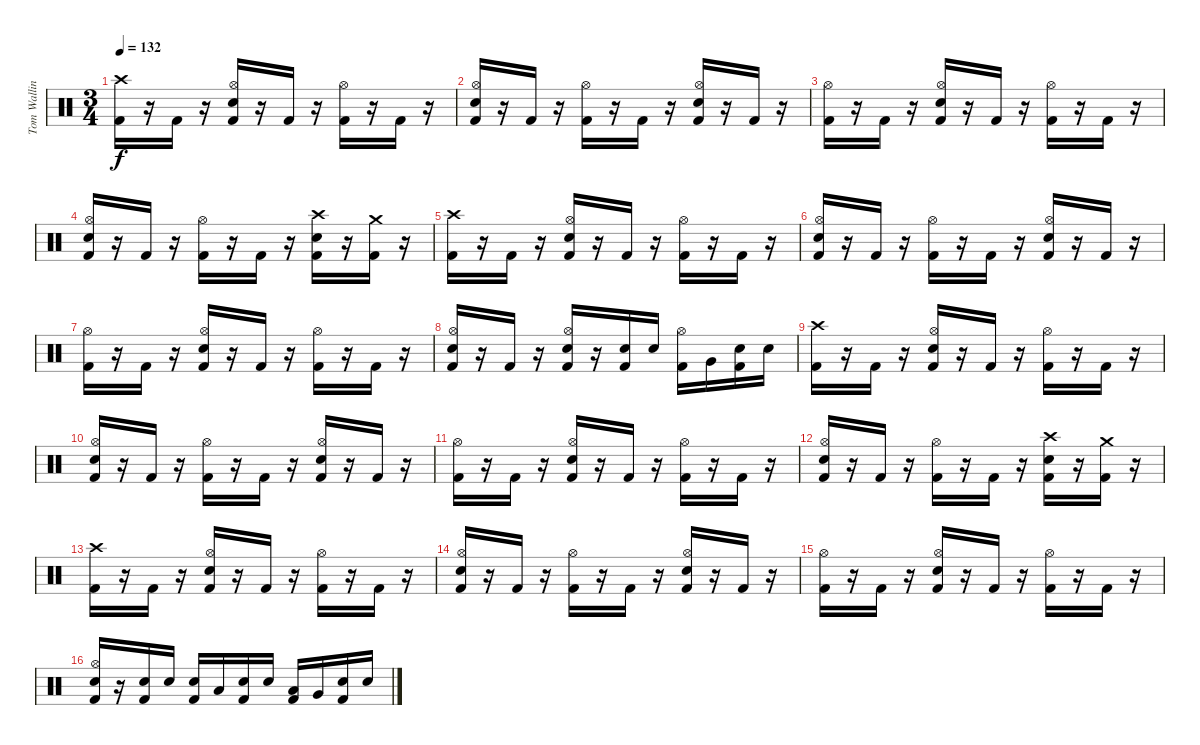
\track ("Tom Walling [Drums]" "Tom Wallin") {instrument percussion}
\staff {score}
\articulation defaults
\ts (3 4)
\tempo 132
\clef neutral
\ks c
("Crash high (hit)" "Kick (hit) 2").16{dy f} r.16 "Kick (hit) 2".16 r.16 ("Hi-Hat (open)" "Electric Snare (hit)" "Kick (hit) 2").16 r.16 "Kick (hit) 2".16 r.16 ("Hi-Hat (open)" "Kick (hit) 2").16 r.16 "Kick (hit) 2".16 r.16 |
("Hi-Hat (open)" "Electric Snare (hit)" "Kick (hit) 2").16 r.16 "Kick (hit) 2".16 r.16 ("Hi-Hat (open)" "Kick (hit) 2").16 r.16 "Kick (hit) 2".16 r.16 ("Hi-Hat (open)" "Electric Snare (hit)" "Kick (hit) 2").16 r.16 "Kick (hit) 2".16 r.16 |
("Hi-Hat (open)" "Kick (hit) 2").16 r.16 "Kick (hit) 2".16 r.16 ("Hi-Hat (open)" "Electric Snare (hit)" "Kick (hit) 2").16 r.16 "Kick (hit) 2".16 r.16 ("Hi-Hat (open)" "Kick (hit) 2").16 r.16 "Kick (hit) 2".16 r.16 |
("Hi-Hat (open)" "Electric Snare (hit)" "Kick (hit) 2").16 r.16 "Kick (hit) 2".16 r.16 ("Hi-Hat (open)" "Kick (hit) 2").16 r.16 "Kick (hit) 2".16 r.16 ("Crash high (hit)" "Electric Snare (hit)" "Kick (hit) 2").16 r.16 ("Crash medium (hit)" "Kick (hit) 2").16 r.16 |
("Crash high (hit)" "Kick (hit) 2").16 r.16 "Kick (hit) 2".16 r.16 ("Hi-Hat (open)" "Electric Snare (hit)" "Kick (hit) 2").16 r.16 "Kick (hit) 2".16 r.16 ("Hi-Hat (open)" "Kick (hit) 2").16 r.16 "Kick (hit) 2".16 r.16 |
("Hi-Hat (open)" "Electric Snare (hit)" "Kick (hit) 2").16 r.16 "Kick (hit) 2".16 r.16 ("Hi-Hat (open)" "Kick (hit) 2").16 r.16 "Kick (hit) 2".16 r.16 ("Hi-Hat (open)" "Electric Snare (hit)" "Kick (hit) 2").16 r.16 "Kick (hit) 2".16 r.16 |
("Hi-Hat (open)" "Kick (hit) 2").16 r.16 "Kick (hit) 2".16 r.16 ("Hi-Hat (open)" "Electric Snare (hit)" "Kick (hit) 2").16 r.16 "Kick (hit) 2".16 r.16 ("Hi-Hat (open)" "Kick (hit) 2").16 r.16 "Kick (hit) 2".16 r.16 |
("Hi-Hat (open)" "Electric Snare (hit)" "Kick (hit) 2").16 r.16 "Kick (hit) 2".16 r.16 ("Hi-Hat (open)" "Electric Snare (hit)" "Kick (hit) 2").16 r.16 ("Electric Snare (hit)" "Kick (hit) 2").16 "Electric Snare (hit)".16 ("Hi-Hat (open)" "Kick (hit) 2").16 "Very Low Tom (hit)".16 ("Electric Snare (hit)" "Kick (hit) 2").16 "Electric Snare (hit)".16 |
("Crash high (hit)" "Kick (hit) 2").16 r.16 "Kick (hit) 2".16 r.16 ("Hi-Hat (open)" "Electric Snare (hit)" "Kick (hit) 2").16 r.16 "Kick (hit) 2".16 r.16 ("Hi-Hat (open)" "Kick (hit) 2").16 r.16 "Kick (hit) 2".16 r.16 |
("Hi-Hat (open)" "Electric Snare (hit)" "Kick (hit) 2").16 r.16 "Kick (hit) 2".16 r.16 ("Hi-Hat (open)" "Kick (hit) 2").16 r.16 "Kick (hit) 2".16 r.16 ("Hi-Hat (open)" "Electric Snare (hit)" "Kick (hit) 2").16 r.16 "Kick (hit) 2".16 r.16 |
("Hi-Hat (open)" "Kick (hit) 2").16 r.16 "Kick (hit) 2".16 r.16 ("Hi-Hat (open)" "Electric Snare (hit)" "Kick (hit) 2").16 r.16 "Kick (hit) 2".16 r.16 ("Hi-Hat (open)" "Kick (hit) 2").16 r.16 "Kick (hit) 2".16 r.16 |
("Hi-Hat (open)" "Electric Snare (hit)" "Kick (hit) 2").16 r.16 "Kick (hit) 2".16 r.16 ("Hi-Hat (open)" "Kick (hit) 2").16 r.16 "Kick (hit) 2".16 r.16 ("Crash high (hit)" "Electric Snare (hit)" "Kick (hit) 2").16 r.16 ("Crash medium (hit)" "Kick (hit) 2").16 r.16 |
("Crash high (hit)" "Kick (hit) 2").16 r.16 "Kick (hit) 2".16 r.16 ("Hi-Hat (open)" "Electric Snare (hit)" "Kick (hit) 2").16 r.16 "Kick (hit) 2".16 r.16 ("Hi-Hat (open)" "Kick (hit) 2").16 r.16 "Kick (hit) 2".16 r.16 |
("Hi-Hat (open)" "Electric Snare (hit)" "Kick (hit) 2").16 r.16 "Kick (hit) 2".16 r.16 ("Hi-Hat (open)" "Kick (hit) 2").16 r.16 "Kick (hit) 2".16 r.16 ("Hi-Hat (open)" "Electric Snare (hit)" "Kick (hit) 2").16 r.16 "Kick (hit) 2".16 r.16 |
("Hi-Hat (open)" "Kick (hit) 2").16 r.16 "Kick (hit) 2".16 r.16 ("Hi-Hat (open)" "Electric Snare (hit)" "Kick (hit) 2").16 r.16 "Kick (hit) 2".16 r.16 ("Hi-Hat (open)" "Kick (hit) 2").16 r.16 "Kick (hit) 2".16 r.16 |
("Hi-Hat (open)" "Electric Snare (hit)" "Kick (hit) 2").16 r.16 ("Electric Snare (hit)" "Kick (hit) 2").16 "Electric Snare (hit)".16 ("Electric Snare (hit)" "Kick (hit) 2").16 "Low Tom (hit)".16 ("Electric Snare (hit)" "Kick (hit) 2").16 "Electric Snare (hit)".16 ("Low Tom (hit)" "Kick (hit) 2").16 "Very Low Tom (hit)".16 ("Electric Snare (hit)" "Kick (hit) 2").16 "Electric Snare (hit)".16
